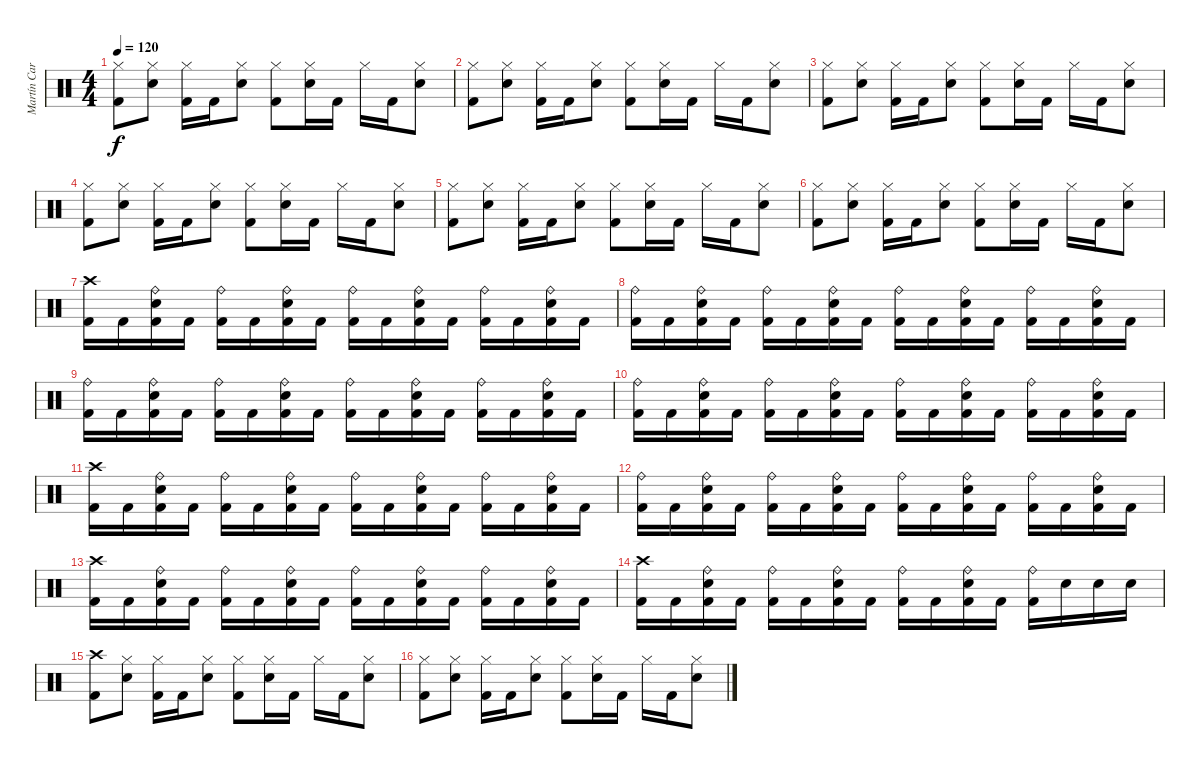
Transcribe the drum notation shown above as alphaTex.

\track ("Martín Carrizo" "Martín Car") {instrument percussion}
\staff {score}
\articulation defaults
\ts (4 4)
\tempo 120
\clef neutral
\ks c
("Hi-Hat (closed)" "Kick (hit) 2").8{dy f} ("Hi-Hat (closed)" "Snare (hit) 2").8 ("Hi-Hat (closed)" "Kick (hit) 2").16 "Kick (hit) 2".16 ("Hi-Hat (closed)" "Snare (hit) 2").8 ("Hi-Hat (closed)" "Kick (hit) 2").8 ("Hi-Hat (closed)" "Snare (hit) 2").16 "Kick (hit) 2".16 "Hi-Hat (closed)".16 "Kick (hit) 2".16 ("Hi-Hat (closed)" "Snare (hit) 2").8 |
("Hi-Hat (closed)" "Kick (hit) 2").8 ("Hi-Hat (closed)" "Snare (hit) 2").8 ("Hi-Hat (closed)" "Kick (hit) 2").16 "Kick (hit) 2".16 ("Hi-Hat (closed)" "Snare (hit) 2").8 ("Hi-Hat (closed)" "Kick (hit) 2").8 ("Hi-Hat (closed)" "Snare (hit) 2").16 "Kick (hit) 2".16 "Hi-Hat (closed)".16 "Kick (hit) 2".16 ("Hi-Hat (closed)" "Snare (hit) 2").8 |
("Hi-Hat (closed)" "Kick (hit) 2").8 ("Hi-Hat (closed)" "Snare (hit) 2").8 ("Hi-Hat (closed)" "Kick (hit) 2").16 "Kick (hit) 2".16 ("Hi-Hat (closed)" "Snare (hit) 2").8 ("Hi-Hat (closed)" "Kick (hit) 2").8 ("Hi-Hat (closed)" "Snare (hit) 2").16 "Kick (hit) 2".16 "Hi-Hat (closed)".16 "Kick (hit) 2".16 ("Hi-Hat (closed)" "Snare (hit) 2").8 |
("Hi-Hat (closed)" "Kick (hit) 2").8 ("Hi-Hat (closed)" "Snare (hit) 2").8 ("Hi-Hat (closed)" "Kick (hit) 2").16 "Kick (hit) 2".16 ("Hi-Hat (closed)" "Snare (hit) 2").8 ("Hi-Hat (closed)" "Kick (hit) 2").8 ("Hi-Hat (closed)" "Snare (hit) 2").16 "Kick (hit) 2".16 "Hi-Hat (closed)".16 "Kick (hit) 2".16 ("Hi-Hat (closed)" "Snare (hit) 2").8 |
("Hi-Hat (closed)" "Kick (hit) 2").8 ("Hi-Hat (closed)" "Snare (hit) 2").8 ("Hi-Hat (closed)" "Kick (hit) 2").16 "Kick (hit) 2".16 ("Hi-Hat (closed)" "Snare (hit) 2").8 ("Hi-Hat (closed)" "Kick (hit) 2").8 ("Hi-Hat (closed)" "Snare (hit) 2").16 "Kick (hit) 2".16 "Hi-Hat (closed)".16 "Kick (hit) 2".16 ("Hi-Hat (closed)" "Snare (hit) 2").8 |
("Hi-Hat (closed)" "Kick (hit) 2").8 ("Hi-Hat (closed)" "Snare (hit) 2").8 ("Hi-Hat (closed)" "Kick (hit) 2").16 "Kick (hit) 2".16 ("Hi-Hat (closed)" "Snare (hit) 2").8 ("Hi-Hat (closed)" "Kick (hit) 2").8 ("Hi-Hat (closed)" "Snare (hit) 2").16 "Kick (hit) 2".16 "Hi-Hat (closed)".16 "Kick (hit) 2".16 ("Hi-Hat (closed)" "Snare (hit) 2").8 |
("Crash high (hit)" "Kick (hit) 2").16 "Kick (hit) 2".16 ("Snare (hit) 2" "Ride (bell)" "Kick (hit) 2").16 "Kick (hit) 2".16 ("Ride (bell)" "Kick (hit) 2").16 "Kick (hit) 2".16 ("Snare (hit) 2" "Ride (bell)" "Kick (hit) 2").16 "Kick (hit) 2".16 ("Ride (bell)" "Kick (hit) 2").16 "Kick (hit) 2".16 ("Snare (hit) 2" "Ride (bell)" "Kick (hit) 2").16 "Kick (hit) 2".16 ("Ride (bell)" "Kick (hit) 2").16 "Kick (hit) 2".16 ("Snare (hit) 2" "Ride (bell)" "Kick (hit) 2").16 "Kick (hit) 2".16 |
("Ride (bell)" "Kick (hit) 2").16 "Kick (hit) 2".16 ("Snare (hit) 2" "Ride (bell)" "Kick (hit) 2").16 "Kick (hit) 2".16 ("Ride (bell)" "Kick (hit) 2").16 "Kick (hit) 2".16 ("Snare (hit) 2" "Ride (bell)" "Kick (hit) 2").16 "Kick (hit) 2".16 ("Ride (bell)" "Kick (hit) 2").16 "Kick (hit) 2".16 ("Snare (hit) 2" "Ride (bell)" "Kick (hit) 2").16 "Kick (hit) 2".16 ("Ride (bell)" "Kick (hit) 2").16 "Kick (hit) 2".16 ("Snare (hit) 2" "Ride (bell)" "Kick (hit) 2").16 "Kick (hit) 2".16 |
("Ride (bell)" "Kick (hit) 2").16 "Kick (hit) 2".16 ("Snare (hit) 2" "Ride (bell)" "Kick (hit) 2").16 "Kick (hit) 2".16 ("Ride (bell)" "Kick (hit) 2").16 "Kick (hit) 2".16 ("Snare (hit) 2" "Ride (bell)" "Kick (hit) 2").16 "Kick (hit) 2".16 ("Ride (bell)" "Kick (hit) 2").16 "Kick (hit) 2".16 ("Snare (hit) 2" "Ride (bell)" "Kick (hit) 2").16 "Kick (hit) 2".16 ("Ride (bell)" "Kick (hit) 2").16 "Kick (hit) 2".16 ("Snare (hit) 2" "Ride (bell)" "Kick (hit) 2").16 "Kick (hit) 2".16 |
("Ride (bell)" "Kick (hit) 2").16 "Kick (hit) 2".16 ("Snare (hit) 2" "Ride (bell)" "Kick (hit) 2").16 "Kick (hit) 2".16 ("Ride (bell)" "Kick (hit) 2").16 "Kick (hit) 2".16 ("Snare (hit) 2" "Ride (bell)" "Kick (hit) 2").16 "Kick (hit) 2".16 ("Ride (bell)" "Kick (hit) 2").16 "Kick (hit) 2".16 ("Snare (hit) 2" "Ride (bell)" "Kick (hit) 2").16 "Kick (hit) 2".16 ("Ride (bell)" "Kick (hit) 2").16 "Kick (hit) 2".16 ("Snare (hit) 2" "Ride (bell)" "Kick (hit) 2").16 "Kick (hit) 2".16 |
("Crash high (hit)" "Kick (hit) 2").16 "Kick (hit) 2".16 ("Snare (hit) 2" "Ride (bell)" "Kick (hit) 2").16 "Kick (hit) 2".16 ("Ride (bell)" "Kick (hit) 2").16 "Kick (hit) 2".16 ("Snare (hit) 2" "Ride (bell)" "Kick (hit) 2").16 "Kick (hit) 2".16 ("Ride (bell)" "Kick (hit) 2").16 "Kick (hit) 2".16 ("Snare (hit) 2" "Ride (bell)" "Kick (hit) 2").16 "Kick (hit) 2".16 ("Ride (bell)" "Kick (hit) 2").16 "Kick (hit) 2".16 ("Snare (hit) 2" "Ride (bell)" "Kick (hit) 2").16 "Kick (hit) 2".16 |
("Ride (bell)" "Kick (hit) 2").16 "Kick (hit) 2".16 ("Snare (hit) 2" "Ride (bell)" "Kick (hit) 2").16 "Kick (hit) 2".16 ("Ride (bell)" "Kick (hit) 2").16 "Kick (hit) 2".16 ("Snare (hit) 2" "Ride (bell)" "Kick (hit) 2").16 "Kick (hit) 2".16 ("Ride (bell)" "Kick (hit) 2").16 "Kick (hit) 2".16 ("Snare (hit) 2" "Ride (bell)" "Kick (hit) 2").16 "Kick (hit) 2".16 ("Ride (bell)" "Kick (hit) 2").16 "Kick (hit) 2".16 ("Snare (hit) 2" "Ride (bell)" "Kick (hit) 2").16 "Kick (hit) 2".16 |
("Crash high (hit)" "Kick (hit) 2").16 "Kick (hit) 2".16 ("Snare (hit) 2" "Ride (bell)" "Kick (hit) 2").16 "Kick (hit) 2".16 ("Ride (bell)" "Kick (hit) 2").16 "Kick (hit) 2".16 ("Snare (hit) 2" "Ride (bell)" "Kick (hit) 2").16 "Kick (hit) 2".16 ("Ride (bell)" "Kick (hit) 2").16 "Kick (hit) 2".16 ("Snare (hit) 2" "Ride (bell)" "Kick (hit) 2").16 "Kick (hit) 2".16 ("Ride (bell)" "Kick (hit) 2").16 "Kick (hit) 2".16 ("Snare (hit) 2" "Ride (bell)" "Kick (hit) 2").16 "Kick (hit) 2".16 |
("Crash high (hit)" "Kick (hit) 2").16 "Kick (hit) 2".16 ("Snare (hit) 2" "Ride (bell)" "Kick (hit) 2").16 "Kick (hit) 2".16 ("Ride (bell)" "Kick (hit) 2").16 "Kick (hit) 2".16 ("Snare (hit) 2" "Ride (bell)" "Kick (hit) 2").16 "Kick (hit) 2".16 ("Ride (bell)" "Kick (hit) 2").16 "Kick (hit) 2".16 ("Snare (hit) 2" "Ride (bell)" "Kick (hit) 2").16 "Kick (hit) 2".16 ("Ride (bell)" "Kick (hit) 2").16 "Snare (hit) 2".16 "Snare (hit) 2".16 "Snare (hit) 2".16 |
("Crash high (hit)" "Kick (hit) 2").8 ("Hi-Hat (closed)" "Snare (hit) 2").8 ("Hi-Hat (closed)" "Kick (hit) 2").16 "Kick (hit) 2".16 ("Hi-Hat (closed)" "Snare (hit) 2").8 ("Hi-Hat (closed)" "Kick (hit) 2").8 ("Hi-Hat (closed)" "Snare (hit) 2").16 "Kick (hit) 2".16 "Hi-Hat (closed)".16 "Kick (hit) 2".16 ("Hi-Hat (closed)" "Snare (hit) 2").8 |
("Hi-Hat (closed)" "Kick (hit) 2").8 ("Hi-Hat (closed)" "Snare (hit) 2").8 ("Hi-Hat (closed)" "Kick (hit) 2").16 "Kick (hit) 2".16 ("Hi-Hat (closed)" "Snare (hit) 2").8 ("Hi-Hat (closed)" "Kick (hit) 2").8 ("Hi-Hat (closed)" "Snare (hit) 2").16 "Kick (hit) 2".16 "Hi-Hat (closed)".16 "Kick (hit) 2".16 ("Hi-Hat (closed)" "Snare (hit) 2").8
